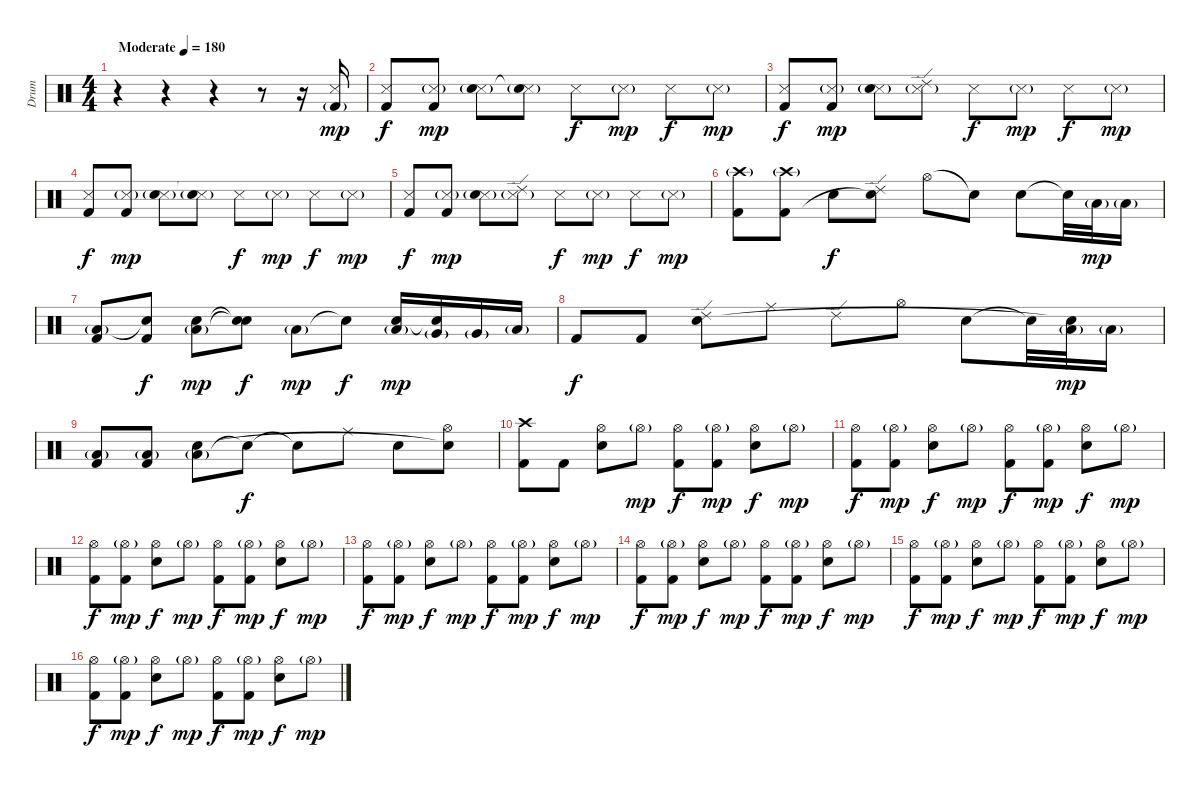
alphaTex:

\track ("Drum" "Drum") {instrument percussion}
\staff {score}
\articulation defaults
\ts (4 4)
\tempo (180 "Moderate")
\clef neutral
\ks c
r.4{dy mp} r.4 r.4 r.8 r.16 ("Snare (side stick) 3" "Kick (hit) 2"{g}).16 |
("Snare (side stick) 3" "Kick (hit) 2").8{dy f} ("Snare (side stick) 3"{g} "Kick (hit) 2").8{dy mp} ("Snare (side stick) 3" "Snare (hit) 2"{g}).8 ("Snare (side stick) 3"{g} "Snare (hit)"{t}).8 "Snare (side stick) 3".8{dy f} "Snare (side stick) 3"{g}.8{dy mp} "Snare (side stick) 3".8{dy f} "Snare (side stick) 3"{g}.8{dy mp} |
("Snare (side stick) 3" "Kick (hit) 2").8{dy f} ("Snare (side stick) 3"{g} "Kick (hit) 2").8{dy mp} ("Snare (side stick) 3" "Snare (hit) 2"{g}).8 ("Snare (side stick) 3"{g} "Ride (edge) 2").8 "Snare (side stick) 3".8{dy f} "Snare (side stick) 3"{g}.8{dy mp} "Snare (side stick) 3".8{dy f} "Snare (side stick) 3"{g}.8{dy mp} |
("Snare (side stick) 3" "Kick (hit) 2").8{dy f} ("Snare (side stick) 3"{g} "Kick (hit) 2").8{dy mp} ("Snare (side stick) 3" "Snare (hit) 2"{g}).8 ("Snare (side stick) 3"{g} "Snare (hit)"{t}).8 "Snare (side stick) 3".8{dy f} "Snare (side stick) 3"{g}.8{dy mp} "Snare (side stick) 3".8{dy f} "Snare (side stick) 3"{g}.8{dy mp} |
("Snare (side stick) 3" "Kick (hit) 2").8{dy f} ("Snare (side stick) 3"{g} "Kick (hit) 2").8{dy mp} ("Snare (side stick) 3" "Snare (hit) 2"{g}).8 ("Snare (side stick) 3"{g} "Ride (edge) 2").8 "Snare (side stick) 3".8{dy f} "Snare (side stick) 3"{g}.8{dy mp} "Snare (side stick) 3".8{dy f} "Snare (side stick) 3"{g}.8{dy mp} |
("Crash high (hit)"{g} "Kick (hit) 2").8 ("Crash high (hit)"{g} "Kick (hit) 2").8 "Snare (hit) 2".8{dy f} ("Ride (edge) 2" "Snare (hit)"{t}).8 "Hi-Hat (open)".8 "Snare (hit)"{t}.8 "Snare (hit) 2".8 "Snare (hit)"{t}.32 "Low Tom (hit)"{g}.32{dy mp} "Low Tom (hit)"{g}.16 |
("Low Tom (hit)"{g} "Kick (hit) 2").8 ("Snare (hit)"{t} "Kick (hit) 2").8{dy f} ("Low Tom (hit)"{g} "Snare (hit) 2").8{dy mp} ("Snare (hit)"{t} "Snare (hit)"{t}).8{dy f} "Low Tom (hit)"{g}.8{dy mp} "Snare (hit)"{t}.8{dy f} ("Low Tom (hit)"{g} "Snare (hit) 2").16{dy mp} ("Very Low Tom (hit)"{g} "Snare (hit)"{t}).16 "Very Low Tom (hit)"{g}.16 "Low Floor Tom (hit)"{g}.16 |
"Kick (hit) 2".8{dy f} "Kick (hit) 2".8 ("Ride (edge) 2" "Snare (hit) 2").8 "Ride (middle)".8 "Ride (edge) 2".8 "Hi-Hat (open)".8 "Snare (hit) 2".8 "Snare (hit)"{t}.32 ("Low Tom (hit)"{g} "Snare (hit)"{t}).32{dy mp} "Low Tom (hit)"{g}.16 |
("Low Tom (hit)"{g} "Kick (hit) 2").8 ("Low Tom (hit)"{g} "Kick (hit) 2").8 ("Low Tom (hit)"{g} "Snare (hit) 2").8 "Snare (hit)"{t}.8{dy f} "Snare (hit)"{t}.8 "Ride (middle)".8 "Snare (hit) 2".8 ("Hi-Hat (open)" "Snare (hit)"{t}).8 |
("Crash high (hit)" "Kick (hit) 2").8 "Kick (hit) 2".8 ("Hi-Hat (open)" "Electric Snare (hit)").8 "Hi-Hat (open)"{g}.8{dy mp} ("Hi-Hat (open)" "Kick (hit) 2").8{dy f} ("Hi-Hat (open)"{g} "Kick (hit) 2").8{dy mp} ("Hi-Hat (open)" "Electric Snare (hit)").8{dy f} "Hi-Hat (open)"{g}.8{dy mp} |
("Hi-Hat (open)" "Kick (hit) 2").8{dy f} ("Hi-Hat (open)"{g} "Kick (hit) 2").8{dy mp} ("Hi-Hat (open)" "Electric Snare (hit)").8{dy f} "Hi-Hat (open)"{g}.8{dy mp} ("Hi-Hat (open)" "Kick (hit) 2").8{dy f} ("Hi-Hat (open)"{g} "Kick (hit) 2").8{dy mp} ("Hi-Hat (open)" "Electric Snare (hit)").8{dy f} "Hi-Hat (open)"{g}.8{dy mp} |
("Hi-Hat (open)" "Kick (hit) 2").8{dy f} ("Hi-Hat (open)"{g} "Kick (hit) 2").8{dy mp} ("Hi-Hat (open)" "Electric Snare (hit)").8{dy f} "Hi-Hat (open)"{g}.8{dy mp} ("Hi-Hat (open)" "Kick (hit) 2").8{dy f} ("Hi-Hat (open)"{g} "Kick (hit) 2").8{dy mp} ("Hi-Hat (open)" "Electric Snare (hit)").8{dy f} "Hi-Hat (open)"{g}.8{dy mp} |
("Hi-Hat (open)" "Kick (hit) 2").8{dy f} ("Hi-Hat (open)"{g} "Kick (hit) 2").8{dy mp} ("Hi-Hat (open)" "Electric Snare (hit)").8{dy f} "Hi-Hat (open)"{g}.8{dy mp} ("Hi-Hat (open)" "Kick (hit) 2").8{dy f} ("Hi-Hat (open)"{g} "Kick (hit) 2").8{dy mp} ("Hi-Hat (open)" "Electric Snare (hit)").8{dy f} "Hi-Hat (open)"{g}.8{dy mp} |
("Hi-Hat (open)" "Kick (hit) 2").8{dy f} ("Hi-Hat (open)"{g} "Kick (hit) 2").8{dy mp} ("Hi-Hat (open)" "Electric Snare (hit)").8{dy f} "Hi-Hat (open)"{g}.8{dy mp} ("Hi-Hat (open)" "Kick (hit) 2").8{dy f} ("Hi-Hat (open)"{g} "Kick (hit) 2").8{dy mp} ("Hi-Hat (open)" "Electric Snare (hit)").8{dy f} "Hi-Hat (open)"{g}.8{dy mp} |
("Hi-Hat (open)" "Kick (hit) 2").8{dy f} ("Hi-Hat (open)"{g} "Kick (hit) 2").8{dy mp} ("Hi-Hat (open)" "Electric Snare (hit)").8{dy f} "Hi-Hat (open)"{g}.8{dy mp} ("Hi-Hat (open)" "Kick (hit) 2").8{dy f} ("Hi-Hat (open)"{g} "Kick (hit) 2").8{dy mp} ("Hi-Hat (open)" "Electric Snare (hit)").8{dy f} "Hi-Hat (open)"{g}.8{dy mp} |
("Hi-Hat (open)" "Kick (hit) 2").8{dy f} ("Hi-Hat (open)"{g} "Kick (hit) 2").8{dy mp} ("Hi-Hat (open)" "Electric Snare (hit)").8{dy f} "Hi-Hat (open)"{g}.8{dy mp} ("Hi-Hat (open)" "Kick (hit) 2").8{dy f} ("Hi-Hat (open)"{g} "Kick (hit) 2").8{dy mp} ("Hi-Hat (open)" "Electric Snare (hit)").8{dy f} "Hi-Hat (open)"{g}.8{dy mp}
